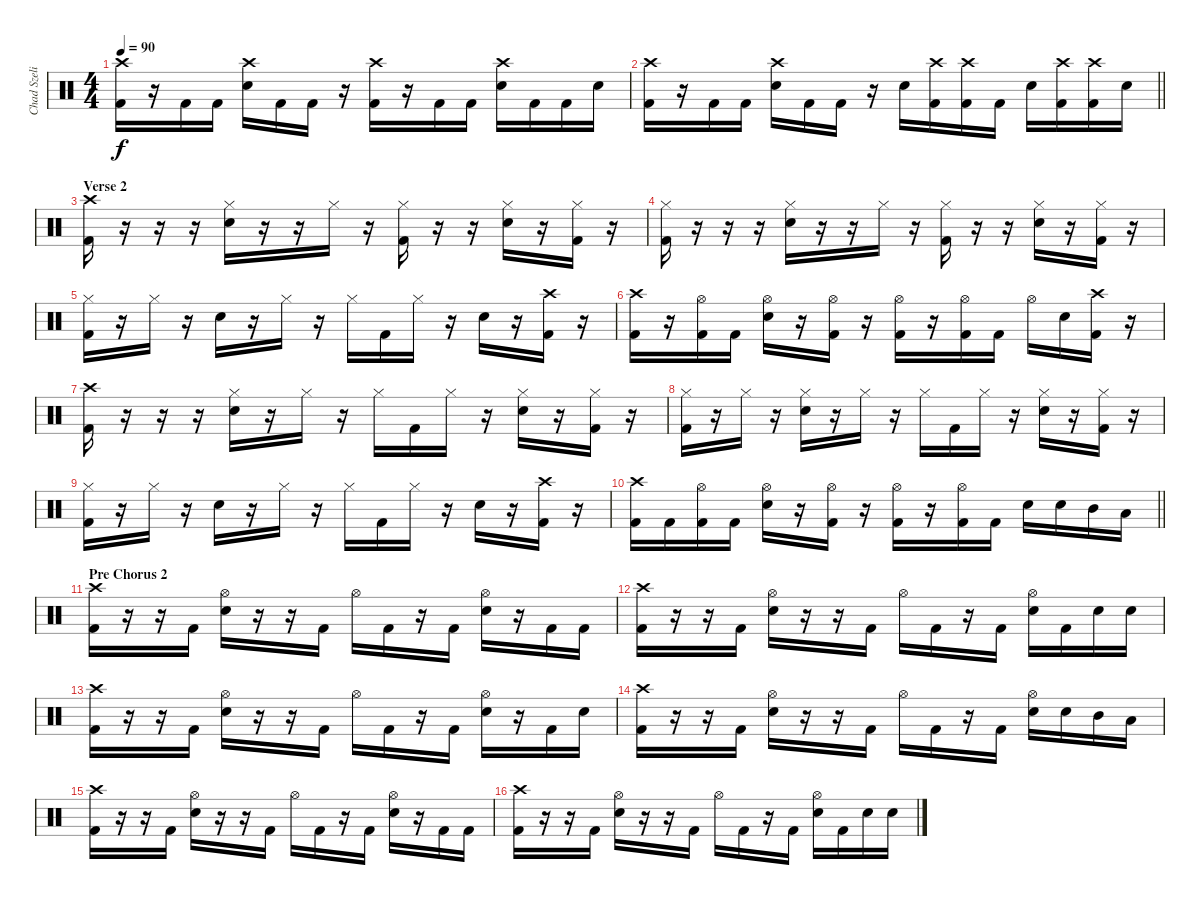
\track ("Chad Szeliga" "Chad Szeli") {instrument percussion}
\staff {score}
\articulation defaults
\ts (4 4)
\tempo 90
\clef neutral
\ks c
("Crash high (hit)" "Kick (hit) 2").16{dy f} r.16 "Kick (hit) 2".16 "Kick (hit) 2".16 ("Crash high (hit)" "Electric Snare (hit)").16 "Kick (hit) 2".16 "Kick (hit) 2".16 r.16 ("Crash high (hit)" "Kick (hit) 2").16 r.16 "Kick (hit) 2".16 "Kick (hit) 2".16 ("Crash high (hit)" "Electric Snare (hit)").16 "Kick (hit) 2".16 "Kick (hit) 2".16 "Electric Snare (hit)".16 |
\barLineRight lightlight
("Crash high (hit)" "Kick (hit) 2").16 r.16 "Kick (hit) 2".16 "Kick (hit) 2".16 ("Crash high (hit)" "Electric Snare (hit)").16 "Kick (hit) 2".16 "Kick (hit) 2".16 r.16 "Electric Snare (hit)".16 ("Crash high (hit)" "Kick (hit) 2").16 ("Crash high (hit)" "Kick (hit) 2").16 "Kick (hit) 2".16 "Electric Snare (hit)".16 ("Crash high (hit)" "Kick (hit) 2").16 ("Crash high (hit)" "Kick (hit) 2").16 "Electric Snare (hit)".16 |
\section ("" "Verse 2")
("Crash high (hit)" "Kick (hit) 2").16 r.16 r.16 r.16 ("Hi-Hat (closed)" "Electric Snare (hit)").16 r.16 r.16 "Hi-Hat (closed)".16 r.16 ("Hi-Hat (closed)" "Kick (hit) 2").16 r.16 r.16 ("Hi-Hat (closed)" "Electric Snare (hit)").16 r.16 ("Hi-Hat (closed)" "Kick (hit) 2").16 r.16 |
("Hi-Hat (closed)" "Kick (hit) 2").16 r.16 r.16 r.16 ("Hi-Hat (closed)" "Electric Snare (hit)").16 r.16 r.16 "Hi-Hat (closed)".16 r.16 ("Hi-Hat (closed)" "Kick (hit) 2").16 r.16 r.16 ("Hi-Hat (closed)" "Electric Snare (hit)").16 r.16 ("Hi-Hat (closed)" "Kick (hit) 2").16 r.16 |
("Hi-Hat (closed)" "Kick (hit) 2").16 r.16 "Hi-Hat (closed)".16 r.16 "Electric Snare (hit)".16 r.16 "Hi-Hat (closed)".16 r.16 "Hi-Hat (closed)".16 "Kick (hit) 2".16 "Hi-Hat (closed)".16 r.16 "Electric Snare (hit)".16 r.16 ("Crash high (hit)" "Kick (hit) 2").16 r.16 |
("Crash high (hit)" "Kick (hit) 2").16 r.16 ("Hi-Hat (open)" "Kick (hit) 2").16 "Kick (hit) 2".16 ("Hi-Hat (open)" "Electric Snare (hit)").16 r.16 ("Hi-Hat (open)" "Kick (hit) 2").16 r.16 ("Hi-Hat (open)" "Kick (hit) 2").16 r.16 ("Hi-Hat (open)" "Kick (hit) 2").16 "Kick (hit) 2".16 "Hi-Hat (open)".16 "Electric Snare (hit)".16 ("Crash high (hit)" "Kick (hit) 2").16 r.16 |
("Crash high (hit)" "Kick (hit) 2").16 r.16 r.16 r.16 ("Hi-Hat (closed)" "Electric Snare (hit)").16 r.16 "Hi-Hat (closed)".16 r.16 "Hi-Hat (closed)".16 "Kick (hit) 2".16 "Hi-Hat (closed)".16 r.16 ("Hi-Hat (closed)" "Electric Snare (hit)").16 r.16 ("Hi-Hat (closed)" "Kick (hit) 2").16 r.16 |
("Hi-Hat (closed)" "Kick (hit) 2").16 r.16 "Hi-Hat (closed)".16 r.16 ("Hi-Hat (closed)" "Electric Snare (hit)").16 r.16 "Hi-Hat (closed)".16 r.16 "Hi-Hat (closed)".16 "Kick (hit) 2".16 "Hi-Hat (closed)".16 r.16 ("Hi-Hat (closed)" "Electric Snare (hit)").16 r.16 ("Hi-Hat (closed)" "Kick (hit) 2").16 r.16 |
("Hi-Hat (closed)" "Kick (hit) 2").16 r.16 "Hi-Hat (closed)".16 r.16 "Electric Snare (hit)".16 r.16 "Hi-Hat (closed)".16 r.16 "Hi-Hat (closed)".16 "Kick (hit) 2".16 "Hi-Hat (closed)".16 r.16 "Electric Snare (hit)".16 r.16 ("Crash high (hit)" "Kick (hit) 2").16 r.16 |
\barLineRight lightlight
("Crash high (hit)" "Kick (hit) 2").16 "Kick (hit) 2".16 ("Hi-Hat (open)" "Kick (hit) 2").16 "Kick (hit) 2".16 ("Hi-Hat (open)" "Electric Snare (hit)").16 r.16 ("Hi-Hat (open)" "Kick (hit) 2").16 r.16 ("Hi-Hat (open)" "Kick (hit) 2").16 r.16 ("Hi-Hat (open)" "Kick (hit) 2").16 "Kick (hit) 2".16 "Electric Snare (hit)".16 "Electric Snare (hit)".16 "Mid Tom (hit)".16 "Low Tom (hit)".16 |
\section ("" "Pre Chorus 2")
("Crash high (hit)" "Kick (hit) 2").16 r.16 r.16 "Kick (hit) 2".16 ("Hi-Hat (open)" "Electric Snare (hit)").16 r.16 r.16 "Kick (hit) 2".16 "Hi-Hat (open)".16 "Kick (hit) 2".16 r.16 "Kick (hit) 2".16 ("Hi-Hat (open)" "Electric Snare (hit)").16 r.16 "Kick (hit) 2".16 "Kick (hit) 2".16 |
("Crash high (hit)" "Kick (hit) 2").16 r.16 r.16 "Kick (hit) 2".16 ("Hi-Hat (open)" "Electric Snare (hit)").16 r.16 r.16 "Kick (hit) 2".16 "Hi-Hat (open)".16 "Kick (hit) 2".16 r.16 "Kick (hit) 2".16 ("Hi-Hat (open)" "Electric Snare (hit)").16 "Kick (hit) 2".16 "Electric Snare (hit)".16 "Electric Snare (hit)".16 |
("Crash high (hit)" "Kick (hit) 2").16 r.16 r.16 "Kick (hit) 2".16 ("Hi-Hat (open)" "Electric Snare (hit)").16 r.16 r.16 "Kick (hit) 2".16 "Hi-Hat (open)".16 "Kick (hit) 2".16 r.16 "Kick (hit) 2".16 ("Hi-Hat (open)" "Electric Snare (hit)").16 r.16 "Kick (hit) 2".16 "Electric Snare (hit)".16 |
("Crash high (hit)" "Kick (hit) 2").16 r.16 r.16 "Kick (hit) 2".16 ("Hi-Hat (open)" "Electric Snare (hit)").16 r.16 r.16 "Kick (hit) 2".16 "Hi-Hat (open)".16 "Kick (hit) 2".16 r.16 "Kick (hit) 2".16 ("Hi-Hat (open)" "Electric Snare (hit)").16 "Electric Snare (hit)".16 "Mid Tom (hit)".16 "Low Tom (hit)".16 |
("Crash high (hit)" "Kick (hit) 2").16 r.16 r.16 "Kick (hit) 2".16 ("Hi-Hat (open)" "Electric Snare (hit)").16 r.16 r.16 "Kick (hit) 2".16 "Hi-Hat (open)".16 "Kick (hit) 2".16 r.16 "Kick (hit) 2".16 ("Hi-Hat (open)" "Electric Snare (hit)").16 r.16 "Kick (hit) 2".16 "Kick (hit) 2".16 |
("Crash high (hit)" "Kick (hit) 2").16 r.16 r.16 "Kick (hit) 2".16 ("Hi-Hat (open)" "Electric Snare (hit)").16 r.16 r.16 "Kick (hit) 2".16 "Hi-Hat (open)".16 "Kick (hit) 2".16 r.16 "Kick (hit) 2".16 ("Hi-Hat (open)" "Electric Snare (hit)").16 "Kick (hit) 2".16 "Electric Snare (hit)".16 "Electric Snare (hit)".16
